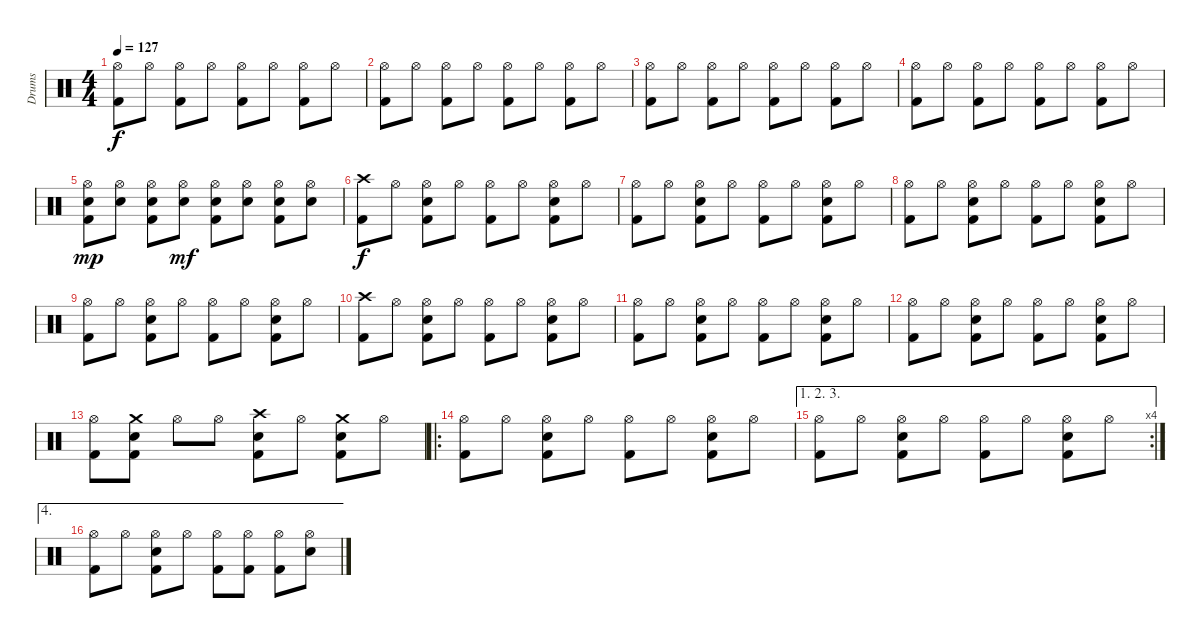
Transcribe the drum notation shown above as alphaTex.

\track ("Drums" "Drums") {instrument percussion}
\staff {score}
\articulation defaults
\ts (4 4)
\tempo 127
\clef neutral
\ks c
("Kick (hit) 2" "Hi-Hat (open)").8{dy f} "Hi-Hat (open)".8 ("Kick (hit) 2" "Hi-Hat (open)").8 "Hi-Hat (open)".8 ("Kick (hit) 2" "Hi-Hat (open)").8 "Hi-Hat (open)".8 ("Kick (hit) 2" "Hi-Hat (open)").8 "Hi-Hat (open)".8 |
("Kick (hit) 2" "Hi-Hat (open)").8 "Hi-Hat (open)".8 ("Kick (hit) 2" "Hi-Hat (open)").8 "Hi-Hat (open)".8 ("Kick (hit) 2" "Hi-Hat (open)").8 "Hi-Hat (open)".8 ("Kick (hit) 2" "Hi-Hat (open)").8 "Hi-Hat (open)".8 |
("Kick (hit) 2" "Hi-Hat (open)").8 "Hi-Hat (open)".8 ("Kick (hit) 2" "Hi-Hat (open)").8 "Hi-Hat (open)".8 ("Kick (hit) 2" "Hi-Hat (open)").8 "Hi-Hat (open)".8 ("Kick (hit) 2" "Hi-Hat (open)").8 "Hi-Hat (open)".8 |
("Kick (hit) 2" "Hi-Hat (open)").8 "Hi-Hat (open)".8 ("Kick (hit) 2" "Hi-Hat (open)").8 "Hi-Hat (open)".8 ("Kick (hit) 2" "Hi-Hat (open)").8 "Hi-Hat (open)".8 ("Kick (hit) 2" "Hi-Hat (open)").8 "Hi-Hat (open)".8 |
("Kick (hit) 2" "Hi-Hat (open)" "Snare (hit) 2").8{dy mp} ("Hi-Hat (open)" "Snare (hit) 2").8 ("Kick (hit) 2" "Hi-Hat (open)" "Snare (hit) 2").8 ("Hi-Hat (open)" "Snare (hit) 2").8{dy mf} ("Kick (hit) 2" "Hi-Hat (open)" "Snare (hit) 2").8 ("Hi-Hat (open)" "Snare (hit) 2").8 ("Kick (hit) 2" "Hi-Hat (open)" "Snare (hit) 2").8 ("Hi-Hat (open)" "Snare (hit) 2").8 |
("Kick (hit) 2" "Crash high (hit)").8{dy f} "Hi-Hat (open)".8 ("Kick (hit) 2" "Hi-Hat (open)" "Snare (hit) 2").8 "Hi-Hat (open)".8 ("Kick (hit) 2" "Hi-Hat (open)").8 "Hi-Hat (open)".8 ("Kick (hit) 2" "Hi-Hat (open)" "Snare (hit) 2").8 "Hi-Hat (open)".8 |
("Kick (hit) 2" "Hi-Hat (open)").8 "Hi-Hat (open)".8 ("Kick (hit) 2" "Hi-Hat (open)" "Snare (hit) 2").8 "Hi-Hat (open)".8 ("Kick (hit) 2" "Hi-Hat (open)").8 "Hi-Hat (open)".8 ("Kick (hit) 2" "Hi-Hat (open)" "Snare (hit) 2").8 "Hi-Hat (open)".8 |
("Kick (hit) 2" "Hi-Hat (open)").8 "Hi-Hat (open)".8 ("Kick (hit) 2" "Hi-Hat (open)" "Snare (hit) 2").8 "Hi-Hat (open)".8 ("Kick (hit) 2" "Hi-Hat (open)").8 "Hi-Hat (open)".8 ("Kick (hit) 2" "Hi-Hat (open)" "Snare (hit) 2").8 "Hi-Hat (open)".8 |
("Kick (hit) 2" "Hi-Hat (open)").8 "Hi-Hat (open)".8 ("Kick (hit) 2" "Hi-Hat (open)" "Snare (hit) 2").8 "Hi-Hat (open)".8 ("Kick (hit) 2" "Hi-Hat (open)").8 "Hi-Hat (open)".8 ("Kick (hit) 2" "Hi-Hat (open)" "Snare (hit) 2").8 "Hi-Hat (open)".8 |
("Kick (hit) 2" "Crash high (hit)").8 "Hi-Hat (open)".8 ("Kick (hit) 2" "Hi-Hat (open)" "Snare (hit) 2").8 "Hi-Hat (open)".8 ("Kick (hit) 2" "Hi-Hat (open)").8 "Hi-Hat (open)".8 ("Kick (hit) 2" "Hi-Hat (open)" "Snare (hit) 2").8 "Hi-Hat (open)".8 |
("Kick (hit) 2" "Hi-Hat (open)").8 "Hi-Hat (open)".8 ("Kick (hit) 2" "Hi-Hat (open)" "Snare (hit) 2").8 "Hi-Hat (open)".8 ("Kick (hit) 2" "Hi-Hat (open)").8 "Hi-Hat (open)".8 ("Kick (hit) 2" "Hi-Hat (open)" "Snare (hit) 2").8 "Hi-Hat (open)".8 |
("Kick (hit) 2" "Hi-Hat (open)").8 "Hi-Hat (open)".8 ("Kick (hit) 2" "Hi-Hat (open)" "Snare (hit) 2").8 "Hi-Hat (open)".8 ("Kick (hit) 2" "Hi-Hat (open)").8 "Hi-Hat (open)".8 ("Kick (hit) 2" "Hi-Hat (open)" "Snare (hit) 2").8 "Hi-Hat (open)".8 |
("Kick (hit) 2" "Hi-Hat (open)").8 ("Kick (hit) 2" "Crash medium (hit)" "Snare (hit) 2").8 "Hi-Hat (open)".8 "Hi-Hat (open)".8 ("Kick (hit) 2" "Crash high (hit)" "Snare (hit) 2").8 "Hi-Hat (open)".8 ("Kick (hit) 2" "Crash medium (hit)" "Snare (hit) 2").8 "Hi-Hat (open)".8 |
\ro
("Kick (hit) 2" "Hi-Hat (open)").8 "Hi-Hat (open)".8 ("Kick (hit) 2" "Hi-Hat (open)" "Snare (hit) 2").8 "Hi-Hat (open)".8 ("Kick (hit) 2" "Hi-Hat (open)").8 "Hi-Hat (open)".8 ("Kick (hit) 2" "Hi-Hat (open)" "Snare (hit) 2").8 "Hi-Hat (open)".8 |
\ae (1 2 3)
\rc 4
("Kick (hit) 2" "Hi-Hat (open)").8 "Hi-Hat (open)".8 ("Kick (hit) 2" "Hi-Hat (open)" "Snare (hit) 2").8 "Hi-Hat (open)".8 ("Kick (hit) 2" "Hi-Hat (open)").8 "Hi-Hat (open)".8 ("Kick (hit) 2" "Hi-Hat (open)" "Snare (hit) 2").8 "Hi-Hat (open)".8 |
\ae 4
("Kick (hit) 2" "Hi-Hat (open)").8 "Hi-Hat (open)".8 ("Kick (hit) 2" "Hi-Hat (open)" "Snare (hit) 2").8 "Hi-Hat (open)".8 ("Kick (hit) 2" "Hi-Hat (open)").8 ("Kick (hit) 2" "Hi-Hat (open)").8 ("Kick (hit) 2" "Hi-Hat (open)").8 ("Hi-Hat (open)" "Snare (hit) 2").8
